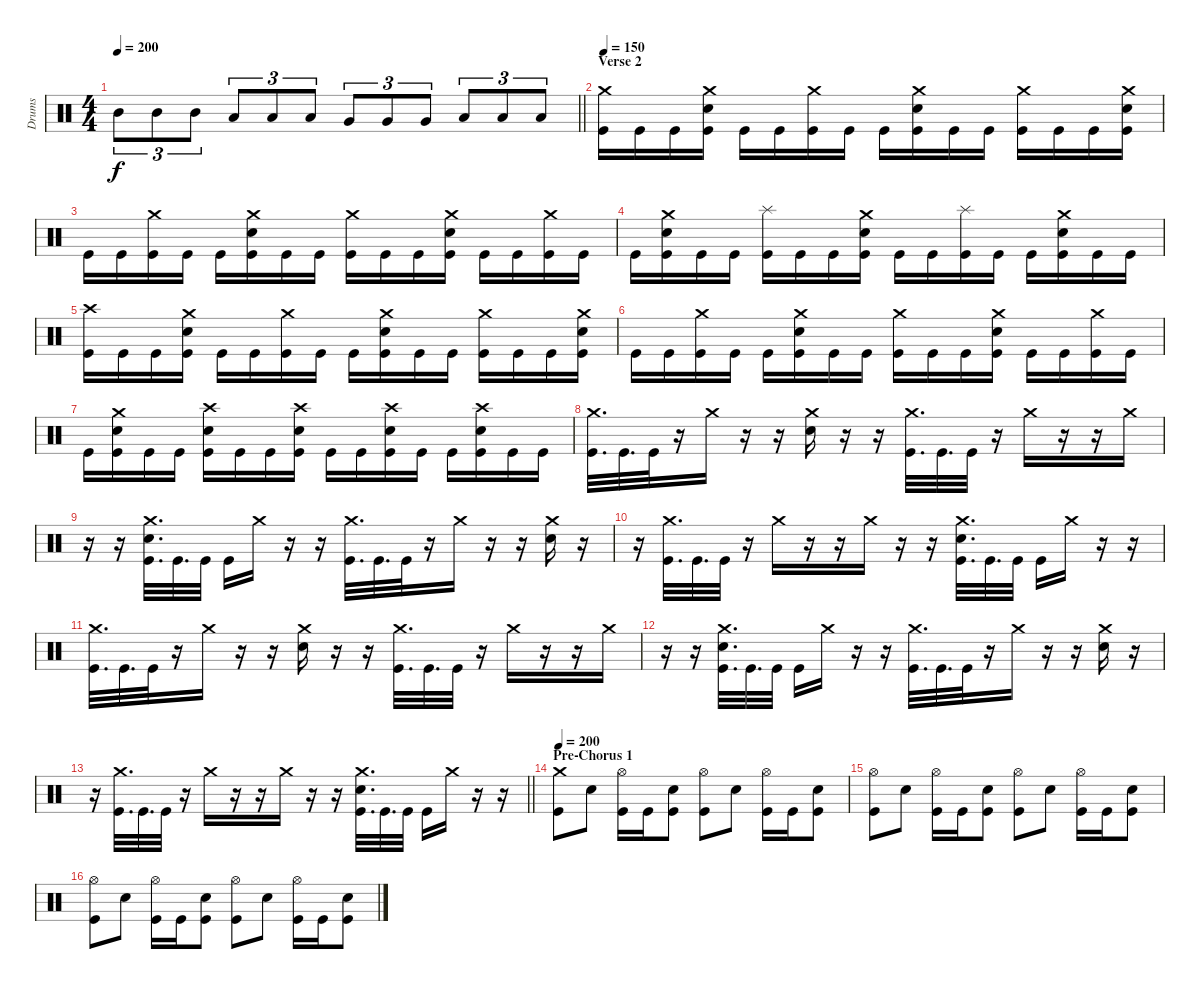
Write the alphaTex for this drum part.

\track ("Drums" "Drums") {instrument percussion}
\staff {score}
\articulation defaults
\ts (4 4)
\tempo 200
\clef neutral
\barLineRight lightlight
\ks c "Mid Tom (hit)".8{tu (3 2) dy f} "Mid Tom (hit)".8{tu (3 2)} "Mid Tom (hit)".8{tu (3 2)} "Low Tom (hit)".8{tu (3 2)} "Low Tom (hit)".8{tu (3 2)} "Low Tom (hit)".8{tu (3 2)} "Very Low Tom (hit)".8{tu (3 2)} "Very Low Tom (hit)".8{tu (3 2)} "Very Low Tom (hit)".8{tu (3 2)} "Low Floor Tom (hit)".8{tu (3 2)} "Low Floor Tom (hit)".8{tu (3 2)} "Low Floor Tom (hit)".8{tu (3 2)}
|
\section ("" "Verse 2")
\tempo 150
("Crash medium (hit)" "Kick (hit)").16 "Kick (hit)".16 "Kick (hit)".16 ("Crash medium (hit)" "Snare (hit) 2" "Kick (hit)").16 "Kick (hit)".16 "Kick (hit)".16 ("Crash medium (hit)" "Kick (hit)").16 "Kick (hit)".16 "Kick (hit)".16 ("Crash medium (hit)" "Snare (hit) 2" "Kick (hit)").16 "Kick (hit)".16 "Kick (hit)".16 ("Crash medium (hit)" "Kick (hit)").16 "Kick (hit)".16 "Kick (hit)".16 ("Crash medium (hit)" "Snare (hit) 2" "Kick (hit)").16 |
"Kick (hit)".16 "Kick (hit)".16 ("Crash medium (hit)" "Kick (hit)").16 "Kick (hit)".16 "Kick (hit)".16 ("Crash medium (hit)" "Snare (hit) 2" "Kick (hit)").16 "Kick (hit)".16 "Kick (hit)".16 ("Crash medium (hit)" "Kick (hit)").16 "Kick (hit)".16 "Kick (hit)".16 ("Crash medium (hit)" "Snare (hit) 2" "Kick (hit)").16 "Kick (hit)".16 "Kick (hit)".16 ("Crash medium (hit)" "Kick (hit)").16 "Kick (hit)".16 |
"Kick (hit)".16 ("Crash medium (hit)" "Snare (hit) 2" "Kick (hit)").16 "Kick (hit)".16 "Kick (hit)".16 ("Splash (hit)" "Kick (hit)").16 "Kick (hit)".16 "Kick (hit)".16 ("Crash medium (hit)" "Snare (hit) 2" "Kick (hit)").16 "Kick (hit)".16 "Kick (hit)".16 ("Splash (hit)" "Kick (hit)").16 "Kick (hit)".16 "Kick (hit)".16 ("Crash medium (hit)" "Snare (hit) 2" "Kick (hit)").16 "Kick (hit)".16 "Kick (hit)".16 |
("Crash high (hit)" "Kick (hit)").16 "Kick (hit)".16 "Kick (hit)".16 ("Crash medium (hit)" "Snare (hit) 2" "Kick (hit)").16 "Kick (hit)".16 "Kick (hit)".16 ("Crash medium (hit)" "Kick (hit)").16 "Kick (hit)".16 "Kick (hit)".16 ("Crash medium (hit)" "Snare (hit) 2" "Kick (hit)").16 "Kick (hit)".16 "Kick (hit)".16 ("Crash medium (hit)" "Kick (hit)").16 "Kick (hit)".16 "Kick (hit)".16 ("Crash medium (hit)" "Snare (hit) 2" "Kick (hit)").16 |
"Kick (hit)".16 "Kick (hit)".16 ("Crash medium (hit)" "Kick (hit)").16 "Kick (hit)".16 "Kick (hit)".16 ("Crash medium (hit)" "Snare (hit) 2" "Kick (hit)").16 "Kick (hit)".16 "Kick (hit)".16 ("Crash medium (hit)" "Kick (hit)").16 "Kick (hit)".16 "Kick (hit)".16 ("Crash medium (hit)" "Snare (hit) 2" "Kick (hit)").16 "Kick (hit)".16 "Kick (hit)".16 ("Crash medium (hit)" "Kick (hit)").16 "Kick (hit)".16 |
"Kick (hit)".16 ("Crash medium (hit)" "Snare (hit) 2" "Kick (hit)").16 "Kick (hit)".16 "Kick (hit)".16 ("Crash high (hit)" "Snare (hit) 2" "Kick (hit)").16 "Kick (hit)".16 "Kick (hit)".16 ("Crash high (hit)" "Snare (hit) 2" "Kick (hit)").16 "Kick (hit)".16 "Kick (hit)".16 ("Crash high (hit)" "Snare (hit) 2" "Kick (hit)").16 "Kick (hit)".16 "Kick (hit)".16 ("Crash high (hit)" "Snare (hit) 2" "Kick (hit)").16 "Kick (hit)".16 "Kick (hit)".16 |
("Crash medium (hit)" "Kick (hit)").32{d} "Kick (hit)".32{d} "Kick (hit)".32 r.16 "Crash medium (hit)".16 r.16 r.16 ("Crash medium (hit)" "Snare (hit) 2").16 r.16 r.16 ("Crash medium (hit)" "Kick (hit)").32{d} "Kick (hit)".32{d} "Kick (hit)".32 r.16 "Crash medium (hit)".16 r.16 r.16 "Crash medium (hit)".16 |
r.16 r.16 ("Crash medium (hit)" "Snare (hit) 2" "Kick (hit)").32{d} "Kick (hit)".32{d} "Kick (hit)".32 "Kick (hit)".16 "Crash medium (hit)".16 r.16 r.16 ("Crash medium (hit)" "Kick (hit)").32{d} "Kick (hit)".32{d} "Kick (hit)".32 r.16 "Crash medium (hit)".16 r.16 r.16 ("Crash medium (hit)" "Snare (hit) 2").16 r.16 |
r.16 ("Crash medium (hit)" "Kick (hit)").32{d} "Kick (hit)".32{d} "Kick (hit)".32 r.16 "Crash medium (hit)".16 r.16 r.16 "Crash medium (hit)".16 r.16 r.16 ("Crash medium (hit)" "Snare (hit) 2" "Kick (hit)").32{d} "Kick (hit)".32{d} "Kick (hit)".32 "Kick (hit)".16 "Crash medium (hit)".16 r.16 r.16 |
("Crash medium (hit)" "Kick (hit)").32{d} "Kick (hit)".32{d} "Kick (hit)".32 r.16 "Crash medium (hit)".16 r.16 r.16 ("Crash medium (hit)" "Snare (hit) 2").16 r.16 r.16 ("Crash medium (hit)" "Kick (hit)").32{d} "Kick (hit)".32{d} "Kick (hit)".32 r.16 "Crash medium (hit)".16 r.16 r.16 "Crash medium (hit)".16 |
r.16 r.16 ("Crash medium (hit)" "Snare (hit) 2" "Kick (hit)").32{d} "Kick (hit)".32{d} "Kick (hit)".32 "Kick (hit)".16 "Crash medium (hit)".16 r.16 r.16 ("Crash medium (hit)" "Kick (hit)").32{d} "Kick (hit)".32{d} "Kick (hit)".32 r.16 "Crash medium (hit)".16 r.16 r.16 ("Crash medium (hit)" "Snare (hit) 2").16 r.16 |
\barLineRight lightlight
r.16 ("Crash medium (hit)" "Kick (hit)").32{d} "Kick (hit)".32{d} "Kick (hit)".32 r.16 "Crash medium (hit)".16 r.16 r.16 "Crash medium (hit)".16 r.16 r.16 ("Crash medium (hit)" "Snare (hit) 2" "Kick (hit)").32{d} "Kick (hit)".32{d} "Kick (hit)".32 "Kick (hit)".16 "Crash medium (hit)".16 r.16 r.16 |
\section ("" "Pre-Chorus 1")
\tempo 200
("Crash medium (hit)" "Kick (hit)").8 "Snare (hit) 2".8 ("Hi-Hat (open)" "Kick (hit)").16 "Kick (hit)".16 ("Snare (hit) 2" "Kick (hit)").8 ("Hi-Hat (open)" "Kick (hit)").8 "Snare (hit) 2".8 ("Hi-Hat (open)" "Kick (hit)").16 "Kick (hit)".16 ("Snare (hit) 2" "Kick (hit)").8 |
("Hi-Hat (open)" "Kick (hit)").8 "Snare (hit) 2".8 ("Hi-Hat (open)" "Kick (hit)").16 "Kick (hit)".16 ("Snare (hit) 2" "Kick (hit)").8 ("Hi-Hat (open)" "Kick (hit)").8 "Snare (hit) 2".8 ("Hi-Hat (open)" "Kick (hit)").16 "Kick (hit)".16 ("Snare (hit) 2" "Kick (hit)").8 |
("Hi-Hat (open)" "Kick (hit)").8 "Snare (hit) 2".8 ("Hi-Hat (open)" "Kick (hit)").16 "Kick (hit)".16 ("Snare (hit) 2" "Kick (hit)").8 ("Hi-Hat (open)" "Kick (hit)").8 "Snare (hit) 2".8 ("Hi-Hat (open)" "Kick (hit)").16 "Kick (hit)".16 ("Snare (hit) 2" "Kick (hit)").8
